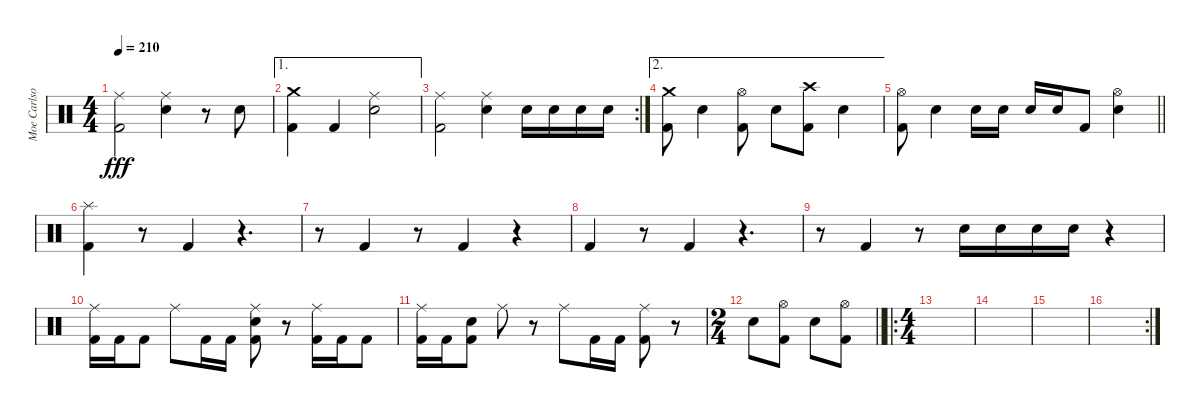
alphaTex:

\track ("Moe Carlson" "Moe Carlso") {instrument percussion}
\staff {score}
\articulation defaults
\ts (4 4)
\tempo 210
\clef neutral
\ks c
("Ride (middle)" "Kick (hit) 2").2{dy fff} ("Ride (middle)" "Electric Snare (hit)").4 r.8 "Electric Snare (hit)".8 |
\ae 1
("Crash medium (hit)" "Kick (hit) 2").4 "Kick (hit) 2".4 ("Ride (middle)" "Electric Snare (hit)").2 |
\rc 2
("Ride (middle)" "Kick (hit) 2").2 ("Ride (middle)" "Electric Snare (hit)").4 "Electric Snare (hit)".16 "Electric Snare (hit)".16 "Electric Snare (hit)".16 "Electric Snare (hit)".16 |
\ae 2
("Crash medium (hit)" "Kick (hit) 2").8 "Electric Snare (hit)".4 ("Hi-Hat (open)" "Kick (hit) 2").8 "Electric Snare (hit)".8 ("Crash high (hit)" "Kick (hit) 2").8 "Electric Snare (hit)".4 |
\barLineRight lightlight
("Hi-Hat (open)" "Kick (hit) 2").8 "Electric Snare (hit)".4 "Electric Snare (hit)".16 "Electric Snare (hit)".16 "Electric Snare (hit)".16 "Electric Snare (hit)".16 "Kick (hit) 2".8 ("Hi-Hat (open)" "Electric Snare (hit)").4 |
("Splash (hit)" "Kick (hit) 2").4 r.8 "Kick (hit) 2".4 r.4{d} |
r.8 "Kick (hit) 2".4 r.8 "Kick (hit) 2".4 r.4 |
"Kick (hit) 2".4 r.8 "Kick (hit) 2".4 r.4{d} |
r.8 "Kick (hit) 2".4 r.8 "Electric Snare (hit)".16 "Electric Snare (hit)".16 "Electric Snare (hit)".16 "Electric Snare (hit)".16 r.4 |
("Ride (middle)" "Kick (hit) 2").16 "Kick (hit) 2".16 "Kick (hit) 2".8 "Ride (middle)".8 "Kick (hit) 2".16 "Kick (hit) 2".16 ("Ride (middle)" "Electric Snare (hit)" "Kick (hit) 2").8 r.8 ("Ride (middle)" "Kick (hit) 2").16 "Kick (hit) 2".16 "Kick (hit) 2".8 |
("Ride (middle)" "Kick (hit) 2").16 "Kick (hit) 2".16 ("Electric Snare (hit)" "Kick (hit) 2").8 "Ride (middle)".8 r.8 "Ride (middle)".8 "Kick (hit) 2".16 "Kick (hit) 2".16 ("Ride (middle)" "Kick (hit) 2").8 r.8 |
\ts (2 4)
\barLineRight lightlight "Electric Snare (hit)".8
("Hi-Hat (open)" "Kick (hit) 2").8 "Electric Snare (hit)".8 ("Hi-Hat (open)" "Kick (hit) 2").8 |
\ro
\ts (4 4)
|
|
|
\rc 2
